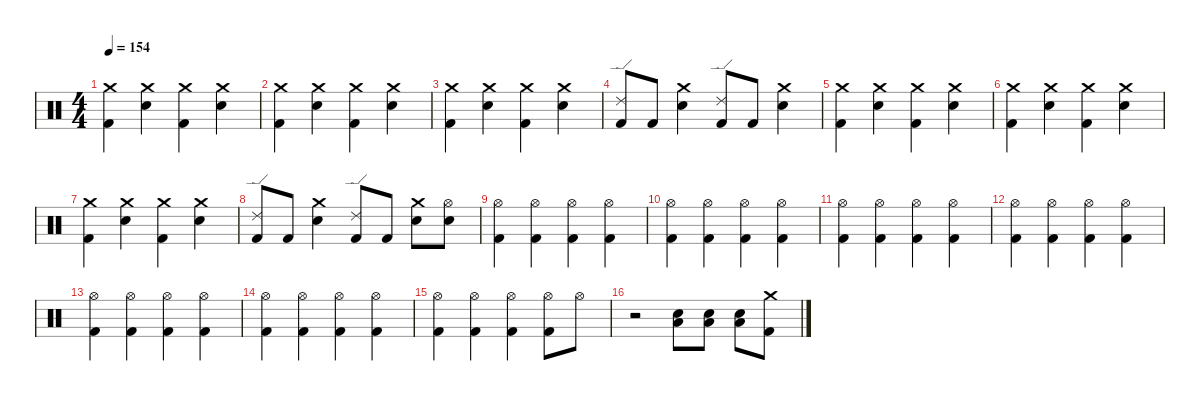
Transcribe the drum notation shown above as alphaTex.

\defaultSystemsLayout 4
\hideDynamics
\bracketExtendMode nobrackets
\singleTrackTrackNamePolicy hidden
\multiTrackTrackNamePolicy hidden
\firstSystemTrackNameMode fullname
\firstSystemTrackNameOrientation horizontal
\otherSystemsTrackNameOrientation horizontal
\track ("Percussie" "drm.") {instrument percussion}
\staff {score}
\articulation defaults
\ts (4 4)
\tempo 154
\clef neutral
\ks c
("Crash medium (hit)" "Kick (hit) 2").4{dy f beam Down} ("Crash medium (hit)" "Snare (hit) 2").4{beam Down} ("Crash medium (hit)" "Kick (hit) 2").4{beam Down} ("Crash medium (hit)" "Snare (hit) 2").4{beam Down} |
("Crash medium (hit)" "Kick (hit) 2").4{beam Down} ("Crash medium (hit)" "Snare (hit) 2").4{beam Down} ("Crash medium (hit)" "Kick (hit) 2").4{beam Down} ("Crash medium (hit)" "Snare (hit) 2").4{beam Down} |
("Crash medium (hit)" "Kick (hit) 2").4{beam Down} ("Crash medium (hit)" "Snare (hit) 2").4{beam Down} ("Crash medium (hit)" "Kick (hit) 2").4{beam Down} ("Crash medium (hit)" "Snare (hit) 2").4{beam Down} |
("Ride (edge) 2" "Kick (hit) 2").8{beam Up} "Kick (hit) 2".8{beam Up} ("Crash medium (hit)" "Snare (hit) 2").4{beam Down} ("Ride (edge) 2" "Kick (hit) 2").8{beam Up} "Kick (hit) 2".8{beam Up} ("Crash medium (hit)" "Snare (hit) 2").4{beam Down} |
("Crash medium (hit)" "Kick (hit) 2").4{beam Down} ("Crash medium (hit)" "Snare (hit) 2").4{beam Down} ("Crash medium (hit)" "Kick (hit) 2").4{beam Down} ("Crash medium (hit)" "Snare (hit) 2").4{beam Down} |
("Crash medium (hit)" "Kick (hit) 2").4{beam Down} ("Crash medium (hit)" "Snare (hit) 2").4{beam Down} ("Crash medium (hit)" "Kick (hit) 2").4{beam Down} ("Crash medium (hit)" "Snare (hit) 2").4{beam Down} |
("Crash medium (hit)" "Kick (hit) 2").4{beam Down} ("Crash medium (hit)" "Snare (hit) 2").4{beam Down} ("Crash medium (hit)" "Kick (hit) 2").4{beam Down} ("Crash medium (hit)" "Snare (hit) 2").4{beam Down} |
("Ride (edge) 2" "Kick (hit) 2").8{beam Up} "Kick (hit) 2".8{beam Up} ("Crash medium (hit)" "Snare (hit) 2").4{beam Down} ("Ride (edge) 2" "Kick (hit) 2").8{beam Up} "Kick (hit) 2".8{beam Up} ("Crash medium (hit)" "Snare (hit) 2").8{beam Down} ("Hi-Hat (open)" "Snare (hit) 2").8{beam Down} |
("Hi-Hat (open)" "Kick (hit) 2").4{beam Down} ("Hi-Hat (open)" "Kick (hit) 2").4{beam Down} ("Hi-Hat (open)" "Kick (hit) 2").4{beam Down} ("Hi-Hat (open)" "Kick (hit) 2").4{beam Down} |
("Hi-Hat (open)" "Kick (hit) 2").4{beam Down} ("Hi-Hat (open)" "Kick (hit) 2").4{beam Down} ("Hi-Hat (open)" "Kick (hit) 2").4{beam Down} ("Hi-Hat (open)" "Kick (hit) 2").4{beam Down} |
("Hi-Hat (open)" "Kick (hit) 2").4{beam Down} ("Hi-Hat (open)" "Kick (hit) 2").4{beam Down} ("Hi-Hat (open)" "Kick (hit) 2").4{beam Down} ("Hi-Hat (open)" "Kick (hit) 2").4{beam Down} |
("Hi-Hat (open)" "Kick (hit) 2").4{beam Down} ("Hi-Hat (open)" "Kick (hit) 2").4{beam Down} ("Hi-Hat (open)" "Kick (hit) 2").4{beam Down} ("Hi-Hat (open)" "Kick (hit) 2").4{beam Down} |
("Hi-Hat (open)" "Kick (hit) 2").4{beam Down} ("Hi-Hat (open)" "Kick (hit) 2").4{beam Down} ("Hi-Hat (open)" "Kick (hit) 2").4{beam Down} ("Hi-Hat (open)" "Kick (hit) 2").4{beam Down} |
("Hi-Hat (open)" "Kick (hit) 2").4{beam Down} ("Hi-Hat (open)" "Kick (hit) 2").4{beam Down} ("Hi-Hat (open)" "Kick (hit) 2").4{beam Down} ("Hi-Hat (open)" "Kick (hit) 2").4{beam Down} |
("Hi-Hat (open)" "Kick (hit) 2").4{beam Down} ("Hi-Hat (open)" "Kick (hit) 2").4{beam Down} ("Hi-Hat (open)" "Kick (hit) 2").4{beam Down} ("Hi-Hat (open)" "Kick (hit) 2").8{beam Down} "Hi-Hat (open)".8{beam Down} |
r.2{beam Down} ("Snare (hit) 2" "Low Tom (hit)").8{beam Down} ("Snare (hit) 2" "Low Tom (hit)").8{beam Down} ("Snare (hit) 2" "Low Tom (hit)").8{beam Down} ("Crash medium (hit)" "Kick (hit) 2").8{beam Down}
